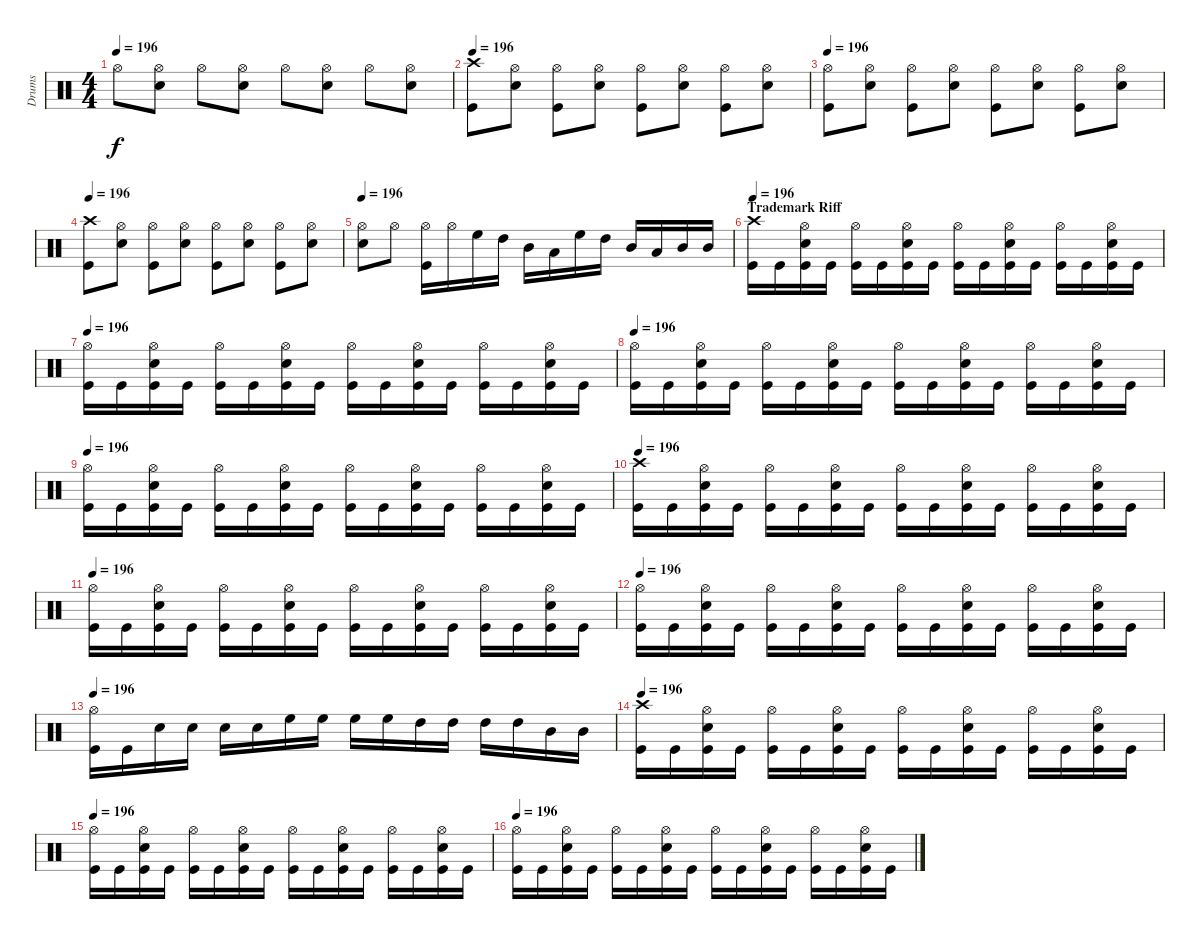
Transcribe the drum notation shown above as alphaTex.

\track ("Drums" "Drums") {instrument percussion}
\staff {score}
\articulation defaults
\ts (4 4)
\tempo 196
\clef neutral
\ks c "Hi-Hat (open)".8{dy f}
("Hi-Hat (open)" "Electric Snare (hit)").8 "Hi-Hat (open)".8 ("Hi-Hat (open)" "Electric Snare (hit)").8 "Hi-Hat (open)".8 ("Hi-Hat (open)" "Electric Snare (hit)").8 "Hi-Hat (open)".8 ("Hi-Hat (open)" "Electric Snare (hit)").8 |
\tempo 196
("Crash high (hit)" "Kick (hit)").8 ("Hi-Hat (open)" "Electric Snare (hit)").8 ("Hi-Hat (open)" "Kick (hit)").8 ("Hi-Hat (open)" "Electric Snare (hit)").8 ("Hi-Hat (open)" "Kick (hit)").8 ("Hi-Hat (open)" "Electric Snare (hit)").8 ("Hi-Hat (open)" "Kick (hit)").8 ("Hi-Hat (open)" "Electric Snare (hit)").8 |
\tempo 196
("Hi-Hat (open)" "Kick (hit)").8 ("Hi-Hat (open)" "Electric Snare (hit)").8 ("Hi-Hat (open)" "Kick (hit)").8 ("Hi-Hat (open)" "Electric Snare (hit)").8 ("Hi-Hat (open)" "Kick (hit)").8 ("Hi-Hat (open)" "Electric Snare (hit)").8 ("Hi-Hat (open)" "Kick (hit)").8 ("Hi-Hat (open)" "Electric Snare (hit)").8 |
\tempo 196
("Crash high (hit)" "Kick (hit)").8 ("Hi-Hat (open)" "Electric Snare (hit)").8 ("Hi-Hat (open)" "Kick (hit)").8 ("Hi-Hat (open)" "Electric Snare (hit)").8 ("Hi-Hat (open)" "Kick (hit)").8 ("Hi-Hat (open)" "Electric Snare (hit)").8 ("Hi-Hat (open)" "Kick (hit)").8 ("Hi-Hat (open)" "Electric Snare (hit)").8 |
\tempo 196
("Hi-Hat (open)" "Electric Snare (hit)").8 "Hi-Hat (open)".8 ("Hi-Hat (open)" "Kick (hit)").16 "Hi-Hat (open)".16 "High Floor Tom (hit)".16 "High Tom (hit)".16 "Mid Tom (hit)".16 "Low Tom (hit)".16 "High Floor Tom (hit)".16 "High Tom (hit)".16 "Mid Tom (hit)".16 "Low Tom (hit)".16 "Mid Tom (hit)".16 "Mid Tom (hit)".16 |
\section ("" "Trademark Riff")
\tempo 196
("Crash high (hit)" "Kick (hit)").16 "Kick (hit)".16 ("Hi-Hat (open)" "Electric Snare (hit)" "Kick (hit)").16 "Kick (hit)".16 ("Hi-Hat (open)" "Kick (hit)").16 "Kick (hit)".16 ("Hi-Hat (open)" "Electric Snare (hit)" "Kick (hit)").16 "Kick (hit)".16 ("Hi-Hat (open)" "Kick (hit)").16 "Kick (hit)".16 ("Hi-Hat (open)" "Electric Snare (hit)" "Kick (hit)").16 "Kick (hit)".16 ("Hi-Hat (open)" "Kick (hit)").16 "Kick (hit)".16 ("Hi-Hat (open)" "Electric Snare (hit)" "Kick (hit)").16 "Kick (hit)".16 |
\tempo 196
("Hi-Hat (open)" "Kick (hit)").16 "Kick (hit)".16 ("Hi-Hat (open)" "Electric Snare (hit)" "Kick (hit)").16 "Kick (hit)".16 ("Hi-Hat (open)" "Kick (hit)").16 "Kick (hit)".16 ("Hi-Hat (open)" "Electric Snare (hit)" "Kick (hit)").16 "Kick (hit)".16 ("Hi-Hat (open)" "Kick (hit)").16 "Kick (hit)".16 ("Hi-Hat (open)" "Electric Snare (hit)" "Kick (hit)").16 "Kick (hit)".16 ("Hi-Hat (open)" "Kick (hit)").16 "Kick (hit)".16 ("Hi-Hat (open)" "Electric Snare (hit)" "Kick (hit)").16 "Kick (hit)".16 |
\tempo 196
("Hi-Hat (open)" "Kick (hit)").16 "Kick (hit)".16 ("Hi-Hat (open)" "Electric Snare (hit)" "Kick (hit)").16 "Kick (hit)".16 ("Hi-Hat (open)" "Kick (hit)").16 "Kick (hit)".16 ("Hi-Hat (open)" "Electric Snare (hit)" "Kick (hit)").16 "Kick (hit)".16 ("Hi-Hat (open)" "Kick (hit)").16 "Kick (hit)".16 ("Hi-Hat (open)" "Electric Snare (hit)" "Kick (hit)").16 "Kick (hit)".16 ("Hi-Hat (open)" "Kick (hit)").16 "Kick (hit)".16 ("Hi-Hat (open)" "Electric Snare (hit)" "Kick (hit)").16 "Kick (hit)".16 |
\tempo 196
("Hi-Hat (open)" "Kick (hit)").16 "Kick (hit)".16 ("Hi-Hat (open)" "Electric Snare (hit)" "Kick (hit)").16 "Kick (hit)".16 ("Hi-Hat (open)" "Kick (hit)").16 "Kick (hit)".16 ("Hi-Hat (open)" "Electric Snare (hit)" "Kick (hit)").16 "Kick (hit)".16 ("Hi-Hat (open)" "Kick (hit)").16 "Kick (hit)".16 ("Hi-Hat (open)" "Electric Snare (hit)" "Kick (hit)").16 "Kick (hit)".16 ("Hi-Hat (open)" "Kick (hit)").16 "Kick (hit)".16 ("Hi-Hat (open)" "Electric Snare (hit)" "Kick (hit)").16 "Kick (hit)".16 |
\tempo 196
("Crash high (hit)" "Kick (hit)").16 "Kick (hit)".16 ("Hi-Hat (open)" "Electric Snare (hit)" "Kick (hit)").16 "Kick (hit)".16 ("Hi-Hat (open)" "Kick (hit)").16 "Kick (hit)".16 ("Hi-Hat (open)" "Electric Snare (hit)" "Kick (hit)").16 "Kick (hit)".16 ("Hi-Hat (open)" "Kick (hit)").16 "Kick (hit)".16 ("Hi-Hat (open)" "Electric Snare (hit)" "Kick (hit)").16 "Kick (hit)".16 ("Hi-Hat (open)" "Kick (hit)").16 "Kick (hit)".16 ("Hi-Hat (open)" "Electric Snare (hit)" "Kick (hit)").16 "Kick (hit)".16 |
\tempo 196
("Hi-Hat (open)" "Kick (hit)").16 "Kick (hit)".16 ("Hi-Hat (open)" "Electric Snare (hit)" "Kick (hit)").16 "Kick (hit)".16 ("Hi-Hat (open)" "Kick (hit)").16 "Kick (hit)".16 ("Hi-Hat (open)" "Electric Snare (hit)" "Kick (hit)").16 "Kick (hit)".16 ("Hi-Hat (open)" "Kick (hit)").16 "Kick (hit)".16 ("Hi-Hat (open)" "Electric Snare (hit)" "Kick (hit)").16 "Kick (hit)".16 ("Hi-Hat (open)" "Kick (hit)").16 "Kick (hit)".16 ("Hi-Hat (open)" "Electric Snare (hit)" "Kick (hit)").16 "Kick (hit)".16 |
\tempo 196
("Hi-Hat (open)" "Kick (hit)").16 "Kick (hit)".16 ("Hi-Hat (open)" "Electric Snare (hit)" "Kick (hit)").16 "Kick (hit)".16 ("Hi-Hat (open)" "Kick (hit)").16 "Kick (hit)".16 ("Hi-Hat (open)" "Electric Snare (hit)" "Kick (hit)").16 "Kick (hit)".16 ("Hi-Hat (open)" "Kick (hit)").16 "Kick (hit)".16 ("Hi-Hat (open)" "Electric Snare (hit)" "Kick (hit)").16 "Kick (hit)".16 ("Hi-Hat (open)" "Kick (hit)").16 "Kick (hit)".16 ("Hi-Hat (open)" "Electric Snare (hit)" "Kick (hit)").16 "Kick (hit)".16 |
\tempo 196
("Hi-Hat (open)" "Kick (hit)").16 "Kick (hit)".16 "Electric Snare (hit)".16 "Electric Snare (hit)".16 "Electric Snare (hit)".16 "Electric Snare (hit)".16 "High Floor Tom (hit)".16 "High Floor Tom (hit)".16 "High Floor Tom (hit)".16 "High Floor Tom (hit)".16 "High Tom (hit)".16 "High Tom (hit)".16 "High Tom (hit)".16 "High Tom (hit)".16 "Mid Tom (hit)".16 "Mid Tom (hit)".16 |
\tempo 196
("Crash high (hit)" "Kick (hit)").16 "Kick (hit)".16 ("Hi-Hat (open)" "Electric Snare (hit)" "Kick (hit)").16 "Kick (hit)".16 ("Hi-Hat (open)" "Kick (hit)").16 "Kick (hit)".16 ("Hi-Hat (open)" "Electric Snare (hit)" "Kick (hit)").16 "Kick (hit)".16 ("Hi-Hat (open)" "Kick (hit)").16 "Kick (hit)".16 ("Hi-Hat (open)" "Electric Snare (hit)" "Kick (hit)").16 "Kick (hit)".16 ("Hi-Hat (open)" "Kick (hit)").16 "Kick (hit)".16 ("Hi-Hat (open)" "Electric Snare (hit)" "Kick (hit)").16 "Kick (hit)".16 |
\tempo 196
("Hi-Hat (open)" "Kick (hit)").16 "Kick (hit)".16 ("Hi-Hat (open)" "Electric Snare (hit)" "Kick (hit)").16 "Kick (hit)".16 ("Hi-Hat (open)" "Kick (hit)").16 "Kick (hit)".16 ("Hi-Hat (open)" "Electric Snare (hit)" "Kick (hit)").16 "Kick (hit)".16 ("Hi-Hat (open)" "Kick (hit)").16 "Kick (hit)".16 ("Hi-Hat (open)" "Electric Snare (hit)" "Kick (hit)").16 "Kick (hit)".16 ("Hi-Hat (open)" "Kick (hit)").16 "Kick (hit)".16 ("Hi-Hat (open)" "Electric Snare (hit)" "Kick (hit)").16 "Kick (hit)".16 |
\tempo 196
("Hi-Hat (open)" "Kick (hit)").16 "Kick (hit)".16 ("Hi-Hat (open)" "Electric Snare (hit)" "Kick (hit)").16 "Kick (hit)".16 ("Hi-Hat (open)" "Kick (hit)").16 "Kick (hit)".16 ("Hi-Hat (open)" "Electric Snare (hit)" "Kick (hit)").16 "Kick (hit)".16 ("Hi-Hat (open)" "Kick (hit)").16 "Kick (hit)".16 ("Hi-Hat (open)" "Electric Snare (hit)" "Kick (hit)").16 "Kick (hit)".16 ("Hi-Hat (open)" "Kick (hit)").16 "Kick (hit)".16 ("Hi-Hat (open)" "Electric Snare (hit)" "Kick (hit)").16 "Kick (hit)".16
